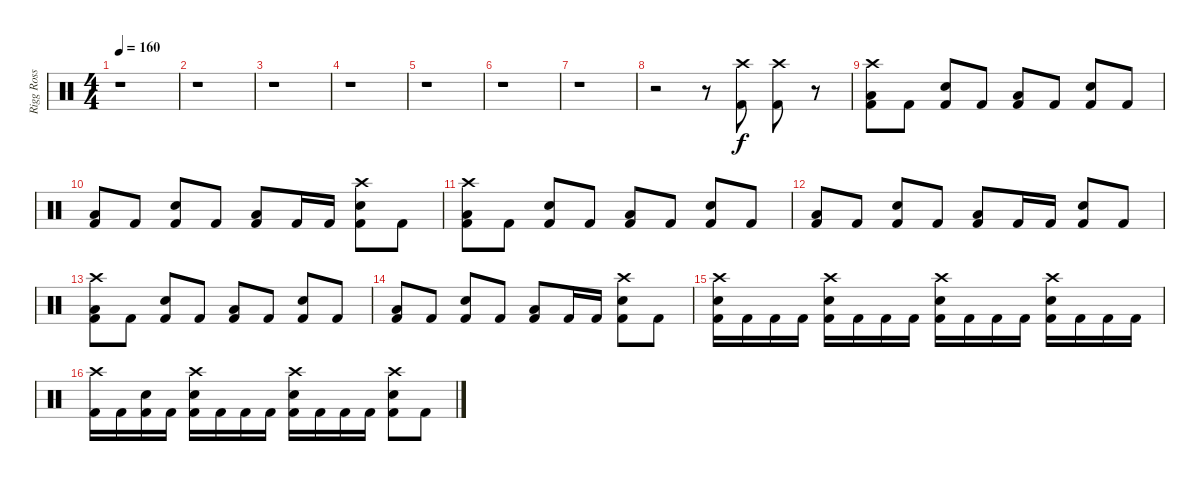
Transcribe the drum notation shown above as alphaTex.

\track ("Rigg Ross" "Rigg Ross") {instrument percussion}
\staff {score}
\articulation defaults
\ts (4 4)
\tempo 160
\clef neutral
\ks c
r.1{dy f} |
r.1 |
r.1 |
r.1 |
r.1 |
r.1 |
r.1 |
r.2 r.8 ("Crash high (hit)" "Kick (hit) 2").8 ("Crash high (hit)" "Kick (hit) 2").8 r.8 |
("Crash high (hit)" "Low Tom (hit)" "Kick (hit) 2").8 "Kick (hit) 2".8 ("Electric Snare (hit)" "Kick (hit) 2").8 "Kick (hit) 2".8 ("Low Tom (hit)" "Kick (hit) 2").8 "Kick (hit) 2".8 ("Electric Snare (hit)" "Kick (hit) 2").8 "Kick (hit) 2".8 |
("Low Tom (hit)" "Kick (hit) 2").8 "Kick (hit) 2".8 ("Electric Snare (hit)" "Kick (hit) 2").8 "Kick (hit) 2".8 ("Low Tom (hit)" "Kick (hit) 2").8 "Kick (hit) 2".16 "Kick (hit) 2".16 ("Crash high (hit)" "Electric Snare (hit)" "Kick (hit) 2").8 "Kick (hit) 2".8 |
("Crash high (hit)" "Low Tom (hit)" "Kick (hit) 2").8 "Kick (hit) 2".8 ("Electric Snare (hit)" "Kick (hit) 2").8 "Kick (hit) 2".8 ("Low Tom (hit)" "Kick (hit) 2").8 "Kick (hit) 2".8 ("Electric Snare (hit)" "Kick (hit) 2").8 "Kick (hit) 2".8 |
("Low Tom (hit)" "Kick (hit) 2").8 "Kick (hit) 2".8 ("Electric Snare (hit)" "Kick (hit) 2").8 "Kick (hit) 2".8 ("Low Tom (hit)" "Kick (hit) 2").8 "Kick (hit) 2".16 "Kick (hit) 2".16 ("Electric Snare (hit)" "Kick (hit) 2").8 "Kick (hit) 2".8 |
("Crash high (hit)" "Low Tom (hit)" "Kick (hit) 2").8 "Kick (hit) 2".8 ("Electric Snare (hit)" "Kick (hit) 2").8 "Kick (hit) 2".8 ("Low Tom (hit)" "Kick (hit) 2").8 "Kick (hit) 2".8 ("Electric Snare (hit)" "Kick (hit) 2").8 "Kick (hit) 2".8 |
("Low Tom (hit)" "Kick (hit) 2").8 "Kick (hit) 2".8 ("Electric Snare (hit)" "Kick (hit) 2").8 "Kick (hit) 2".8 ("Low Tom (hit)" "Kick (hit) 2").8 "Kick (hit) 2".16 "Kick (hit) 2".16 ("Crash high (hit)" "Electric Snare (hit)" "Kick (hit) 2").8 "Kick (hit) 2".8 |
("Crash high (hit)" "Electric Snare (hit)" "Kick (hit) 2").16 "Kick (hit) 2".16 "Kick (hit) 2".16 "Kick (hit) 2".16 ("Crash high (hit)" "Electric Snare (hit)" "Kick (hit) 2").16 "Kick (hit) 2".16 "Kick (hit) 2".16 "Kick (hit) 2".16 ("Crash high (hit)" "Electric Snare (hit)" "Kick (hit) 2").16 "Kick (hit) 2".16 "Kick (hit) 2".16 "Kick (hit) 2".16 ("Crash high (hit)" "Electric Snare (hit)" "Kick (hit) 2").16 "Kick (hit) 2".16 "Kick (hit) 2".16 "Kick (hit) 2".16 |
("Crash high (hit)" "Kick (hit) 2").16 "Kick (hit) 2".16 ("Electric Snare (hit)" "Kick (hit) 2").16 "Kick (hit) 2".16 ("Crash high (hit)" "Electric Snare (hit)" "Kick (hit) 2").16 "Kick (hit) 2".16 "Kick (hit) 2".16 "Kick (hit) 2".16 ("Crash high (hit)" "Electric Snare (hit)" "Kick (hit) 2").16 "Kick (hit) 2".16 "Kick (hit) 2".16 "Kick (hit) 2".16 ("Crash high (hit)" "Electric Snare (hit)" "Kick (hit) 2").8 "Kick (hit) 2".8
